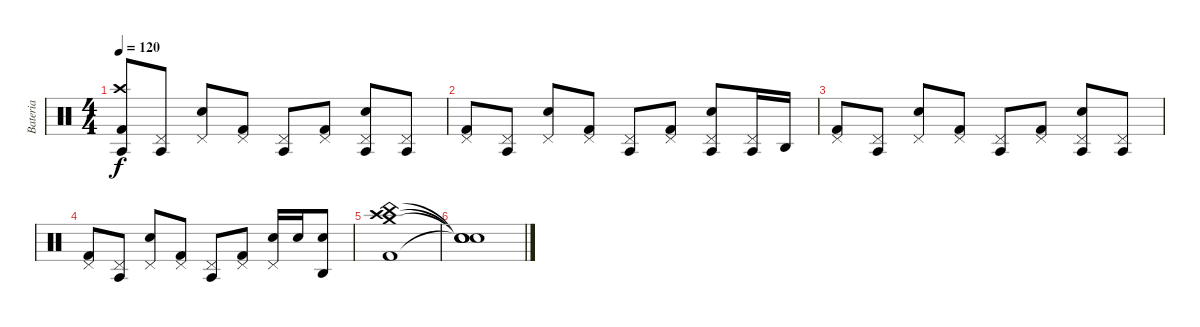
\track ("Bateria" "Bateria") {instrument percussion}
\staff {score}
\articulation defaults
\ts (4 4)
\tempo 120
\clef neutral
\ks c
("Crash high (hit)" "Agogo tow (hit)" "Kick (hit) 2").8{dy f} ("Pedal Hi-Hat (hit)" "Agogo tow (hit)").8 ("Pedal Hi-Hat (hit)" "Snare (hit) 2").8 ("Pedal Hi-Hat (hit)" "Kick (hit) 2").8 ("Pedal Hi-Hat (hit)" "Agogo tow (hit)").8 ("Pedal Hi-Hat (hit)" "Kick (hit) 2").8 ("Pedal Hi-Hat (hit)" "Snare (hit) 2" "Agogo tow (hit)").8 ("Pedal Hi-Hat (hit)" "Agogo tow (hit)").8 |
("Pedal Hi-Hat (hit)" "Kick (hit) 2").8 ("Pedal Hi-Hat (hit)" "Agogo tow (hit)").8 ("Pedal Hi-Hat (hit)" "Snare (hit) 2").8 ("Pedal Hi-Hat (hit)" "Kick (hit) 2").8 ("Pedal Hi-Hat (hit)" "Agogo tow (hit)").8 ("Pedal Hi-Hat (hit)" "Kick (hit) 2").8 ("Pedal Hi-Hat (hit)" "Snare (hit) 2" "Agogo tow (hit)").8 ("Pedal Hi-Hat (hit)" "Agogo tow (hit)").16 "Agogo high (hit)".16 |
("Pedal Hi-Hat (hit)" "Kick (hit) 2").8 ("Pedal Hi-Hat (hit)" "Agogo tow (hit)").8 ("Pedal Hi-Hat (hit)" "Snare (hit) 2").8 ("Pedal Hi-Hat (hit)" "Kick (hit) 2").8 ("Pedal Hi-Hat (hit)" "Agogo tow (hit)").8 ("Pedal Hi-Hat (hit)" "Kick (hit) 2").8 ("Pedal Hi-Hat (hit)" "Snare (hit) 2" "Agogo tow (hit)").8 ("Pedal Hi-Hat (hit)" "Agogo tow (hit)").8 |
("Pedal Hi-Hat (hit)" "Kick (hit) 2").8 ("Pedal Hi-Hat (hit)" "Agogo tow (hit)").8 ("Pedal Hi-Hat (hit)" "Snare (hit) 2").8 ("Pedal Hi-Hat (hit)" "Kick (hit) 2").8 ("Pedal Hi-Hat (hit)" "Agogo tow (hit)").8 ("Pedal Hi-Hat (hit)" "Kick (hit) 2").8 ("Pedal Hi-Hat (hit)" "Snare (hit) 2").16 "Snare (hit) 2".16 ("Snare (hit) 2" "Agogo high (hit)").8 |
("Crash high (hit)" "Crash medium (hit)" "China (hit)" "Kick (hit) 2").1 |
("Snare (hit)"{t} "Snare (hit)"{t} "Snare (hit)"{t} "Snare (hit)"{t}).1
